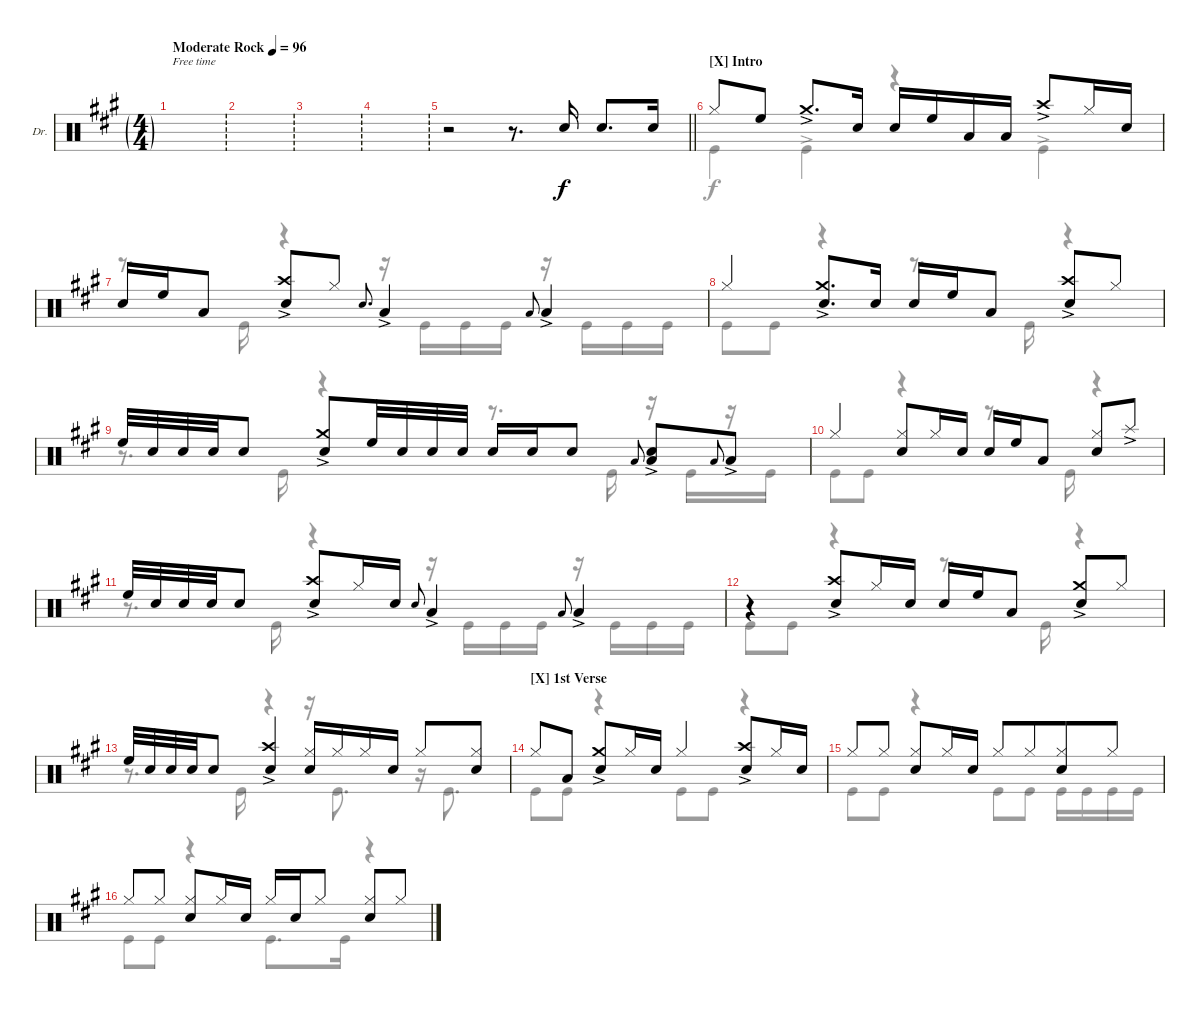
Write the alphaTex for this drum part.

\defaultSystemsLayout 4
\bracketExtendMode groupsimilarinstruments
\firstSystemTrackNameOrientation horizontal
\otherSystemsTrackNameOrientation horizontal
\track ("Drums" "Dr.") {instrument percussion}
\staff {score}
\articulation defaults
\voice
\ts (4 4)
\ft
\ac
\tempo (96 "Moderate Rock")
\clef neutral
\ks a
|
\ft
|
\ft
|
\ft
|
\ft
\barLineRight lightlight
r.2 r.8{d} "Snare (hit) 2".16{beam invert} "Snare (hit) 2".8{d beam invert} "Snare (hit) 2".16 |
\section ("X" "Intro")
"Hi-Hat (closed)".8 "High Floor Tom (hit)".8 "Crash medium (hit)"{ac}.8{d} "Snare (hit) 2".16 "Snare (hit) 2".16 "High Floor Tom (hit)".16 "Low Tom (hit)".16 "Low Tom (hit)".16 "Crash high (hit)"{ac}.8 "Hi-Hat (closed)".16 "Snare (hit) 2".16 |
"Snare (hit) 2".16 "High Floor Tom (hit)".16 "Low Tom (hit)".8 ("Snare (hit) 2"{ac} "Crash high (hit)"{ac}).8 "Hi-Hat (closed)".8 "Snare (hit) 2".8{d gr onbeat} "Low Tom (hit)"{ac}.4 "Low Tom (hit)".8{gr onbeat} "Low Tom (hit)"{ac}.4 |
"Hi-Hat (closed)".4 ("Snare (hit) 2"{ac} "Crash medium (hit)"{ac}).8{d} "Snare (hit) 2".16 "Snare (hit) 2".16 "High Floor Tom (hit)".16 "Low Tom (hit)".8 ("Snare (hit) 2"{ac} "Crash high (hit)"{ac}).8 "Hi-Hat (closed)".8 |
"High Floor Tom (hit)".32 "Snare (hit) 2".32 "Snare (hit) 2".32 "Snare (hit) 2".32 "Snare (hit) 2".8 ("Snare (hit) 2"{ac} "Crash medium (hit)"{ac}).8 "High Floor Tom (hit)".32 "Snare (hit) 2".32 "Snare (hit) 2".32 "Snare (hit) 2".32 "Snare (hit) 2".16 "Snare (hit) 2".16 "Snare (hit) 2".8 "Low Tom (hit)".8{gr onbeat} ("Snare (hit) 2"{ac} "Low Tom (hit)"{ac}).8 "Low Tom (hit)".8{gr onbeat} "Low Tom (hit)"{ac}.8 |
"Hi-Hat (closed)".4 ("Hi-Hat (closed)" "Snare (hit) 2").8 "Hi-Hat (closed)".16 "Snare (hit) 2".16 "Snare (hit) 2".16 "High Floor Tom (hit)".16 "Low Tom (hit)".8 ("Snare (hit) 2" "Hi-Hat (closed)").8 "Splash (hit)"{ac}.8 |
"High Floor Tom (hit)".32 "Snare (hit) 2".32 "Snare (hit) 2".32 "Snare (hit) 2".32 "Snare (hit) 2".8 ("Snare (hit) 2"{ac} "Crash high (hit)"{ac}).8 "Hi-Hat (closed)".16 "Snare (hit) 2".16 "Snare (hit) 2".8{gr onbeat} "Low Tom (hit)"{ac}.4 "Low Tom (hit)".8{gr onbeat} "Low Tom (hit)"{ac}.4 |
r.4 ("Snare (hit) 2"{ac} "Crash high (hit)"{ac}).8 "Hi-Hat (closed)".16 "Snare (hit) 2".16 "Snare (hit) 2".16 "High Floor Tom (hit)".16 "Low Tom (hit)".8 ("Snare (hit) 2"{ac} "Crash medium (hit)"{ac}).8 "Hi-Hat (closed)".8 |
"High Floor Tom (hit)".32 "Snare (hit) 2".32 "Snare (hit) 2".32 "Snare (hit) 2".32 "Snare (hit) 2".8 ("Snare (hit) 2"{ac} "Crash high (hit)"{ac}).4 ("Snare (hit) 2" "Hi-Hat (closed)").16 "Hi-Hat (closed)".16 "Hi-Hat (closed)".16 "Snare (hit) 2".16 "Hi-Hat (closed)".8 ("Hi-Hat (closed)" "Snare (hit) 2").8 |
\section ("X" "1st Verse")
"Hi-Hat (closed)".8 "Low Tom (hit)".8 ("Snare (hit) 2"{ac} "Crash medium (hit)"{ac}).8 "Hi-Hat (closed)".16 "Snare (hit) 2".16 "Hi-Hat (closed)".4 ("Crash high (hit)"{ac} "Snare (hit) 2"{ac}).8 "Hi-Hat (closed)".16 "Snare (hit) 2".16 |
"Hi-Hat (closed)".8 "Hi-Hat (closed)".8 ("Hi-Hat (closed)" "Snare (hit) 2").8 "Hi-Hat (closed)".16 "Snare (hit) 2".16 "Hi-Hat (closed)".8 "Hi-Hat (closed)".8{beam merge} ("Hi-Hat (closed)" "Snare (hit) 2").8 "Hi-Hat (closed)".8 |
"Hi-Hat (closed)".8 "Hi-Hat (closed)".8 ("Hi-Hat (closed)" "Snare (hit) 2").8 "Hi-Hat (closed)".16 "Snare (hit) 2".16 "Hi-Hat (closed)".16 "Snare (hit) 2".16 "Hi-Hat (closed)".8 ("Hi-Hat (closed)" "Snare (hit) 2").8 "Hi-Hat (closed)".8
\voice
\clef neutral
\ottava regular
\simile none
\ks a
|
|
|
|
\barLineRight lightlight
|
"Kick (hit)".4 "Kick (hit)"{ac}.4 r.4 "Kick (hit)"{ac}.4 |
r.8{d} "Kick (hit)".16 r.4 r.16 "Kick (hit)".16 "Kick (hit)".16 "Kick (hit)".16 r.16 "Kick (hit)".16 "Kick (hit)".16 "Kick (hit)".16 |
"Kick (hit)".8 "Kick (hit)".8 r.4 r.8{d} "Kick (hit)".16 r.4 |
r.8{d} "Kick (hit)".16 r.4 r.8{d} "Kick (hit)".16 r.16 "Kick (hit)".16 r.16 "Kick (hit)".16 |
"Kick (hit)".8 "Kick (hit)".8 r.4 r.8{d} "Kick (hit)".16 r.4 |
r.8{d} "Kick (hit)".16 r.4 r.16 "Kick (hit)".16 "Kick (hit)".16 "Kick (hit)".16 r.16 "Kick (hit)".16 "Kick (hit)".16 "Kick (hit)".16 |
"Kick (hit)".8 "Kick (hit)".8 r.4 r.8{d} "Kick (hit)".16 r.4 |
r.8{d} "Kick (hit)".16 r.4 r.16 "Kick (hit)".8{d} r.16 "Kick (hit)".8{d} |
"Kick (hit)".8 "Kick (hit)".8 r.4 "Kick (hit)".8 "Kick (hit)".8 r.4 |
"Kick (hit)".8 "Kick (hit)".8 r.4 "Kick (hit)".8 "Kick (hit)".8 "Kick (hit)".16 "Kick (hit)".16 "Kick (hit)".16 "Kick (hit)".16 |
"Kick (hit)".8 "Kick (hit)".8 r.4 "Kick (hit)".8{d} "Kick (hit)".16 r.4
